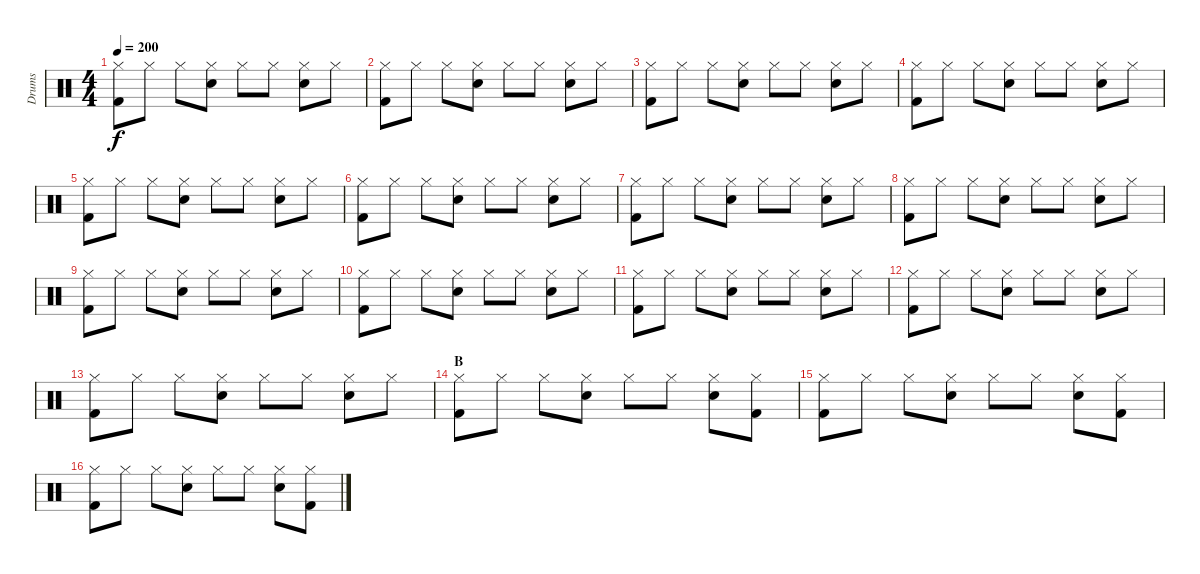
\track ("Drums" "Drums") {instrument percussion}
\staff {score}
\articulation defaults
\ts (4 4)
\tempo 200
\clef neutral
\ks c
("Hi-Hat (closed)" "Kick (hit) 2").8{dy f} "Hi-Hat (closed)".8 "Hi-Hat (closed)".8 ("Hi-Hat (closed)" "Electric Snare (hit)").8 "Hi-Hat (closed)".8 "Hi-Hat (closed)".8 ("Hi-Hat (closed)" "Electric Snare (hit)").8 "Hi-Hat (closed)".8 |
("Hi-Hat (closed)" "Kick (hit) 2").8 "Hi-Hat (closed)".8 "Hi-Hat (closed)".8 ("Hi-Hat (closed)" "Electric Snare (hit)").8 "Hi-Hat (closed)".8 "Hi-Hat (closed)".8 ("Hi-Hat (closed)" "Electric Snare (hit)").8 "Hi-Hat (closed)".8 |
("Hi-Hat (closed)" "Kick (hit) 2").8 "Hi-Hat (closed)".8 "Hi-Hat (closed)".8 ("Hi-Hat (closed)" "Electric Snare (hit)").8 "Hi-Hat (closed)".8 "Hi-Hat (closed)".8 ("Hi-Hat (closed)" "Electric Snare (hit)").8 "Hi-Hat (closed)".8 |
("Hi-Hat (closed)" "Kick (hit) 2").8 "Hi-Hat (closed)".8 "Hi-Hat (closed)".8 ("Hi-Hat (closed)" "Electric Snare (hit)").8 "Hi-Hat (closed)".8 "Hi-Hat (closed)".8 ("Hi-Hat (closed)" "Electric Snare (hit)").8 "Hi-Hat (closed)".8 |
("Hi-Hat (closed)" "Kick (hit) 2").8 "Hi-Hat (closed)".8 "Hi-Hat (closed)".8 ("Hi-Hat (closed)" "Electric Snare (hit)").8 "Hi-Hat (closed)".8 "Hi-Hat (closed)".8 ("Hi-Hat (closed)" "Electric Snare (hit)").8 "Hi-Hat (closed)".8 |
("Hi-Hat (closed)" "Kick (hit) 2").8 "Hi-Hat (closed)".8 "Hi-Hat (closed)".8 ("Hi-Hat (closed)" "Electric Snare (hit)").8 "Hi-Hat (closed)".8 "Hi-Hat (closed)".8 ("Hi-Hat (closed)" "Electric Snare (hit)").8 "Hi-Hat (closed)".8 |
("Hi-Hat (closed)" "Kick (hit) 2").8 "Hi-Hat (closed)".8 "Hi-Hat (closed)".8 ("Hi-Hat (closed)" "Electric Snare (hit)").8 "Hi-Hat (closed)".8 "Hi-Hat (closed)".8 ("Hi-Hat (closed)" "Electric Snare (hit)").8 "Hi-Hat (closed)".8 |
("Hi-Hat (closed)" "Kick (hit) 2").8 "Hi-Hat (closed)".8 "Hi-Hat (closed)".8 ("Hi-Hat (closed)" "Electric Snare (hit)").8 "Hi-Hat (closed)".8 "Hi-Hat (closed)".8 ("Hi-Hat (closed)" "Electric Snare (hit)").8 "Hi-Hat (closed)".8 |
("Hi-Hat (closed)" "Kick (hit) 2").8 "Hi-Hat (closed)".8 "Hi-Hat (closed)".8 ("Hi-Hat (closed)" "Electric Snare (hit)").8 "Hi-Hat (closed)".8 "Hi-Hat (closed)".8 ("Hi-Hat (closed)" "Electric Snare (hit)").8 "Hi-Hat (closed)".8 |
("Hi-Hat (closed)" "Kick (hit) 2").8 "Hi-Hat (closed)".8 "Hi-Hat (closed)".8 ("Hi-Hat (closed)" "Electric Snare (hit)").8 "Hi-Hat (closed)".8 "Hi-Hat (closed)".8 ("Hi-Hat (closed)" "Electric Snare (hit)").8 "Hi-Hat (closed)".8 |
("Hi-Hat (closed)" "Kick (hit) 2").8 "Hi-Hat (closed)".8 "Hi-Hat (closed)".8 ("Hi-Hat (closed)" "Electric Snare (hit)").8 "Hi-Hat (closed)".8 "Hi-Hat (closed)".8 ("Hi-Hat (closed)" "Electric Snare (hit)").8 "Hi-Hat (closed)".8 |
("Hi-Hat (closed)" "Kick (hit) 2").8 "Hi-Hat (closed)".8 "Hi-Hat (closed)".8 ("Hi-Hat (closed)" "Electric Snare (hit)").8 "Hi-Hat (closed)".8 "Hi-Hat (closed)".8 ("Hi-Hat (closed)" "Electric Snare (hit)").8 "Hi-Hat (closed)".8 |
("Hi-Hat (closed)" "Kick (hit) 2").8 "Hi-Hat (closed)".8 "Hi-Hat (closed)".8 ("Hi-Hat (closed)" "Electric Snare (hit)").8 "Hi-Hat (closed)".8 "Hi-Hat (closed)".8 ("Hi-Hat (closed)" "Electric Snare (hit)").8 "Hi-Hat (closed)".8 |
\section ("" "B")
("Hi-Hat (closed)" "Kick (hit) 2").8 "Hi-Hat (closed)".8 "Hi-Hat (closed)".8 ("Hi-Hat (closed)" "Electric Snare (hit)").8 "Hi-Hat (closed)".8 "Hi-Hat (closed)".8 ("Hi-Hat (closed)" "Electric Snare (hit)").8 ("Hi-Hat (closed)" "Kick (hit) 2").8 |
("Hi-Hat (closed)" "Kick (hit) 2").8 "Hi-Hat (closed)".8 "Hi-Hat (closed)".8 ("Hi-Hat (closed)" "Electric Snare (hit)").8 "Hi-Hat (closed)".8 "Hi-Hat (closed)".8 ("Hi-Hat (closed)" "Electric Snare (hit)").8 ("Hi-Hat (closed)" "Kick (hit) 2").8 |
("Hi-Hat (closed)" "Kick (hit) 2").8 "Hi-Hat (closed)".8 "Hi-Hat (closed)".8 ("Hi-Hat (closed)" "Electric Snare (hit)").8 "Hi-Hat (closed)".8 "Hi-Hat (closed)".8 ("Hi-Hat (closed)" "Electric Snare (hit)").8 ("Hi-Hat (closed)" "Kick (hit) 2").8
